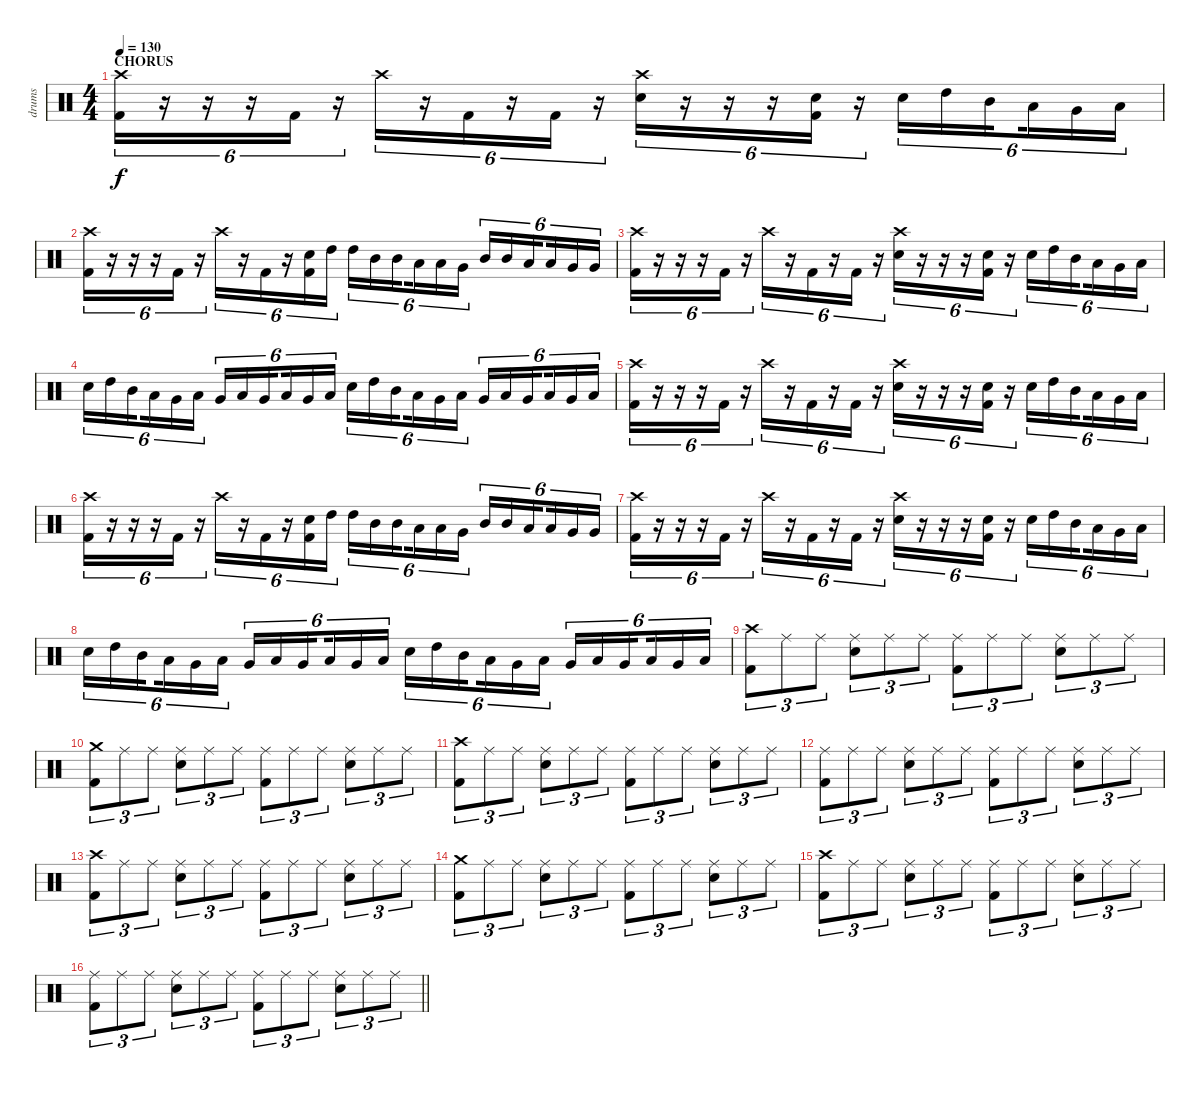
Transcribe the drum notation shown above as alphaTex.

\track ("drums" "drums") {instrument percussion}
\staff {score}
\articulation defaults
\ts (4 4)
\section ("" "CHORUS")
\tempo 130
\clef neutral
\ks c
("Crash high (hit)" "Kick (hit) 2").16{tu (6 4) dy f} r.16{tu (6 4)} r.16{tu (6 4)} r.16{tu (6 4)} "Kick (hit) 2".16{tu (6 4)} r.16{tu (6 4)} "Crash high (hit)".16{tu (6 4)} r.16{tu (6 4)} "Kick (hit) 2".16{tu (6 4)} r.16{tu (6 4)} "Kick (hit) 2".16{tu (6 4)} r.16{tu (6 4)} ("Crash high (hit)" "Electric Snare (hit)").16{tu (6 4)} r.16{tu (6 4)} r.16{tu (6 4)} r.16{tu (6 4)} ("Electric Snare (hit)" "Kick (hit) 2").16{tu (6 4)} r.16{tu (6 4)} "Electric Snare (hit)".16{tu (6 4)} "High Tom (hit)".16{tu (6 4)} "Mid Tom (hit)".16{tu (6 4) beam splitsecondary} "Low Tom (hit)".16{tu (6 4)} "Very Low Tom (hit)".16{tu (6 4)} "Low Floor Tom (hit)".16{tu (6 4)} |
("Crash high (hit)" "Kick (hit) 2").16{tu (6 4)} r.16{tu (6 4)} r.16{tu (6 4)} r.16{tu (6 4)} "Kick (hit) 2".16{tu (6 4)} r.16{tu (6 4)} "Crash high (hit)".16{tu (6 4)} r.16{tu (6 4)} "Kick (hit) 2".16{tu (6 4)} r.16{tu (6 4)} ("Electric Snare (hit)" "Kick (hit) 2").16{tu (6 4)} "High Tom (hit)".16{tu (6 4)} "High Tom (hit)".16{tu (6 4)} "Mid Tom (hit)".16{tu (6 4)} "Mid Tom (hit)".16{tu (6 4) beam splitsecondary} "Low Tom (hit)".16{tu (6 4)} "Low Tom (hit)".16{tu (6 4)} "Very Low Tom (hit)".16{tu (6 4)} "Mid Tom (hit)".16{tu (6 4)} "Mid Tom (hit)".16{tu (6 4)} "Low Tom (hit)".16{tu (6 4) beam splitsecondary} "Low Tom (hit)".16{tu (6 4)} "Very Low Tom (hit)".16{tu (6 4)} "Very Low Tom (hit)".16{tu (6 4)} |
("Crash high (hit)" "Kick (hit) 2").16{tu (6 4)} r.16{tu (6 4)} r.16{tu (6 4)} r.16{tu (6 4)} "Kick (hit) 2".16{tu (6 4)} r.16{tu (6 4)} "Crash high (hit)".16{tu (6 4)} r.16{tu (6 4)} "Kick (hit) 2".16{tu (6 4)} r.16{tu (6 4)} "Kick (hit) 2".16{tu (6 4)} r.16{tu (6 4)} ("Crash high (hit)" "Electric Snare (hit)").16{tu (6 4)} r.16{tu (6 4)} r.16{tu (6 4)} r.16{tu (6 4)} ("Electric Snare (hit)" "Kick (hit) 2").16{tu (6 4)} r.16{tu (6 4)} "Electric Snare (hit)".16{tu (6 4)} "High Tom (hit)".16{tu (6 4)} "Mid Tom (hit)".16{tu (6 4) beam splitsecondary} "Low Tom (hit)".16{tu (6 4)} "Very Low Tom (hit)".16{tu (6 4)} "Low Floor Tom (hit)".16{tu (6 4)} |
"Electric Snare (hit)".16{tu (6 4)} "High Tom (hit)".16{tu (6 4)} "Mid Tom (hit)".16{tu (6 4) beam splitsecondary} "Low Tom (hit)".16{tu (6 4)} "Very Low Tom (hit)".16{tu (6 4)} "Low Floor Tom (hit)".16{tu (6 4)} "Very Low Tom (hit)".16{tu (6 4)} "Low Tom (hit)".16{tu (6 4)} "Very Low Tom (hit)".16{tu (6 4) beam splitsecondary} "Low Floor Tom (hit)".16{tu (6 4)} "Very Low Tom (hit)".16{tu (6 4)} "Low Tom (hit)".16{tu (6 4)} "Electric Snare (hit)".16{tu (6 4)} "High Tom (hit)".16{tu (6 4)} "Mid Tom (hit)".16{tu (6 4) beam splitsecondary} "Low Tom (hit)".16{tu (6 4)} "Very Low Tom (hit)".16{tu (6 4)} "Low Floor Tom (hit)".16{tu (6 4)} "Very Low Tom (hit)".16{tu (6 4)} "Low Tom (hit)".16{tu (6 4)} "Very Low Tom (hit)".16{tu (6 4) beam splitsecondary} "Low Floor Tom (hit)".16{tu (6 4)} "Very Low Tom (hit)".16{tu (6 4)} "Low Tom (hit)".16{tu (6 4)} |
("Crash high (hit)" "Kick (hit) 2").16{tu (6 4)} r.16{tu (6 4)} r.16{tu (6 4)} r.16{tu (6 4)} "Kick (hit) 2".16{tu (6 4)} r.16{tu (6 4)} "Crash high (hit)".16{tu (6 4)} r.16{tu (6 4)} "Kick (hit) 2".16{tu (6 4)} r.16{tu (6 4)} "Kick (hit) 2".16{tu (6 4)} r.16{tu (6 4)} ("Crash high (hit)" "Electric Snare (hit)").16{tu (6 4)} r.16{tu (6 4)} r.16{tu (6 4)} r.16{tu (6 4)} ("Electric Snare (hit)" "Kick (hit) 2").16{tu (6 4)} r.16{tu (6 4)} "Electric Snare (hit)".16{tu (6 4)} "High Tom (hit)".16{tu (6 4)} "Mid Tom (hit)".16{tu (6 4) beam splitsecondary} "Low Tom (hit)".16{tu (6 4)} "Very Low Tom (hit)".16{tu (6 4)} "Low Floor Tom (hit)".16{tu (6 4)} |
("Crash high (hit)" "Kick (hit) 2").16{tu (6 4)} r.16{tu (6 4)} r.16{tu (6 4)} r.16{tu (6 4)} "Kick (hit) 2".16{tu (6 4)} r.16{tu (6 4)} "Crash high (hit)".16{tu (6 4)} r.16{tu (6 4)} "Kick (hit) 2".16{tu (6 4)} r.16{tu (6 4)} ("Electric Snare (hit)" "Kick (hit) 2").16{tu (6 4)} "High Tom (hit)".16{tu (6 4)} "High Tom (hit)".16{tu (6 4)} "Mid Tom (hit)".16{tu (6 4)} "Mid Tom (hit)".16{tu (6 4) beam splitsecondary} "Low Tom (hit)".16{tu (6 4)} "Low Tom (hit)".16{tu (6 4)} "Very Low Tom (hit)".16{tu (6 4)} "Mid Tom (hit)".16{tu (6 4)} "Mid Tom (hit)".16{tu (6 4)} "Low Tom (hit)".16{tu (6 4) beam splitsecondary} "Low Tom (hit)".16{tu (6 4)} "Very Low Tom (hit)".16{tu (6 4)} "Very Low Tom (hit)".16{tu (6 4)} |
("Crash high (hit)" "Kick (hit) 2").16{tu (6 4)} r.16{tu (6 4)} r.16{tu (6 4)} r.16{tu (6 4)} "Kick (hit) 2".16{tu (6 4)} r.16{tu (6 4)} "Crash high (hit)".16{tu (6 4)} r.16{tu (6 4)} "Kick (hit) 2".16{tu (6 4)} r.16{tu (6 4)} "Kick (hit) 2".16{tu (6 4)} r.16{tu (6 4)} ("Crash high (hit)" "Electric Snare (hit)").16{tu (6 4)} r.16{tu (6 4)} r.16{tu (6 4)} r.16{tu (6 4)} ("Electric Snare (hit)" "Kick (hit) 2").16{tu (6 4)} r.16{tu (6 4)} "Electric Snare (hit)".16{tu (6 4)} "High Tom (hit)".16{tu (6 4)} "Mid Tom (hit)".16{tu (6 4) beam splitsecondary} "Low Tom (hit)".16{tu (6 4)} "Very Low Tom (hit)".16{tu (6 4)} "Low Floor Tom (hit)".16{tu (6 4)} |
"Electric Snare (hit)".16{tu (6 4)} "High Tom (hit)".16{tu (6 4)} "Mid Tom (hit)".16{tu (6 4) beam splitsecondary} "Low Tom (hit)".16{tu (6 4)} "Very Low Tom (hit)".16{tu (6 4)} "Low Floor Tom (hit)".16{tu (6 4)} "Very Low Tom (hit)".16{tu (6 4)} "Low Tom (hit)".16{tu (6 4)} "Very Low Tom (hit)".16{tu (6 4) beam splitsecondary} "Low Floor Tom (hit)".16{tu (6 4)} "Very Low Tom (hit)".16{tu (6 4)} "Low Tom (hit)".16{tu (6 4)} "Electric Snare (hit)".16{tu (6 4)} "High Tom (hit)".16{tu (6 4)} "Mid Tom (hit)".16{tu (6 4) beam splitsecondary} "Low Tom (hit)".16{tu (6 4)} "Very Low Tom (hit)".16{tu (6 4)} "Low Floor Tom (hit)".16{tu (6 4)} "Very Low Tom (hit)".16{tu (6 4)} "Low Tom (hit)".16{tu (6 4)} "Very Low Tom (hit)".16{tu (6 4) beam splitsecondary} "Low Floor Tom (hit)".16{tu (6 4)} "Very Low Tom (hit)".16{tu (6 4)} "Low Tom (hit)".16{tu (6 4)} |
("Crash high (hit)" "Kick (hit) 2").8{tu (3 2)} "Ride (middle)".8{tu (3 2)} "Ride (middle)".8{tu (3 2)} ("Ride (middle)" "Electric Snare (hit)").8{tu (3 2)} "Ride (middle)".8{tu (3 2)} "Ride (middle)".8{tu (3 2)} ("Ride (middle)" "Kick (hit) 2").8{tu (3 2)} "Ride (middle)".8{tu (3 2)} "Ride (middle)".8{tu (3 2)} ("Ride (middle)" "Electric Snare (hit)").8{tu (3 2)} "Ride (middle)".8{tu (3 2)} "Ride (middle)".8{tu (3 2)} |
("Crash medium (hit)" "Kick (hit) 2").8{tu (3 2)} "Ride (middle)".8{tu (3 2)} "Ride (middle)".8{tu (3 2)} ("Ride (middle)" "Electric Snare (hit)").8{tu (3 2)} "Ride (middle)".8{tu (3 2)} "Ride (middle)".8{tu (3 2)} ("Ride (middle)" "Kick (hit) 2").8{tu (3 2)} "Ride (middle)".8{tu (3 2)} "Ride (middle)".8{tu (3 2)} ("Ride (middle)" "Electric Snare (hit)").8{tu (3 2)} "Ride (middle)".8{tu (3 2)} "Ride (middle)".8{tu (3 2)} |
("Crash high (hit)" "Kick (hit) 2").8{tu (3 2)} "Ride (middle)".8{tu (3 2)} "Ride (middle)".8{tu (3 2)} ("Ride (middle)" "Electric Snare (hit)").8{tu (3 2)} "Ride (middle)".8{tu (3 2)} "Ride (middle)".8{tu (3 2)} ("Ride (middle)" "Kick (hit) 2").8{tu (3 2)} "Ride (middle)".8{tu (3 2)} "Ride (middle)".8{tu (3 2)} ("Ride (middle)" "Electric Snare (hit)").8{tu (3 2)} "Ride (middle)".8{tu (3 2)} "Ride (middle)".8{tu (3 2)} |
("Ride (middle)" "Kick (hit) 2").8{tu (3 2)} "Ride (middle)".8{tu (3 2)} "Ride (middle)".8{tu (3 2)} ("Ride (middle)" "Electric Snare (hit)").8{tu (3 2)} "Ride (middle)".8{tu (3 2)} "Ride (middle)".8{tu (3 2)} ("Ride (middle)" "Kick (hit) 2").8{tu (3 2)} "Ride (middle)".8{tu (3 2)} "Ride (middle)".8{tu (3 2)} ("Ride (middle)" "Electric Snare (hit)").8{tu (3 2)} "Ride (middle)".8{tu (3 2)} "Ride (middle)".8{tu (3 2)} |
("Crash high (hit)" "Kick (hit) 2").8{tu (3 2)} "Ride (middle)".8{tu (3 2)} "Ride (middle)".8{tu (3 2)} ("Ride (middle)" "Electric Snare (hit)").8{tu (3 2)} "Ride (middle)".8{tu (3 2)} "Ride (middle)".8{tu (3 2)} ("Ride (middle)" "Kick (hit) 2").8{tu (3 2)} "Ride (middle)".8{tu (3 2)} "Ride (middle)".8{tu (3 2)} ("Ride (middle)" "Electric Snare (hit)").8{tu (3 2)} "Ride (middle)".8{tu (3 2)} "Ride (middle)".8{tu (3 2)} |
("Crash medium (hit)" "Kick (hit) 2").8{tu (3 2)} "Ride (middle)".8{tu (3 2)} "Ride (middle)".8{tu (3 2)} ("Ride (middle)" "Electric Snare (hit)").8{tu (3 2)} "Ride (middle)".8{tu (3 2)} "Ride (middle)".8{tu (3 2)} ("Ride (middle)" "Kick (hit) 2").8{tu (3 2)} "Ride (middle)".8{tu (3 2)} "Ride (middle)".8{tu (3 2)} ("Ride (middle)" "Electric Snare (hit)").8{tu (3 2)} "Ride (middle)".8{tu (3 2)} "Ride (middle)".8{tu (3 2)} |
("Crash high (hit)" "Kick (hit) 2").8{tu (3 2)} "Ride (middle)".8{tu (3 2)} "Ride (middle)".8{tu (3 2)} ("Ride (middle)" "Electric Snare (hit)").8{tu (3 2)} "Ride (middle)".8{tu (3 2)} "Ride (middle)".8{tu (3 2)} ("Ride (middle)" "Kick (hit) 2").8{tu (3 2)} "Ride (middle)".8{tu (3 2)} "Ride (middle)".8{tu (3 2)} ("Ride (middle)" "Electric Snare (hit)").8{tu (3 2)} "Ride (middle)".8{tu (3 2)} "Ride (middle)".8{tu (3 2)} |
\barLineRight lightlight
("Ride (middle)" "Kick (hit) 2").8{tu (3 2)} "Ride (middle)".8{tu (3 2)} "Ride (middle)".8{tu (3 2)} ("Ride (middle)" "Electric Snare (hit)").8{tu (3 2)} "Ride (middle)".8{tu (3 2)} "Ride (middle)".8{tu (3 2)} ("Ride (middle)" "Kick (hit) 2").8{tu (3 2)} "Ride (middle)".8{tu (3 2)} "Ride (middle)".8{tu (3 2)} ("Ride (middle)" "Electric Snare (hit)").8{tu (3 2)} "Ride (middle)".8{tu (3 2)} "Ride (middle)".8{tu (3 2)}
